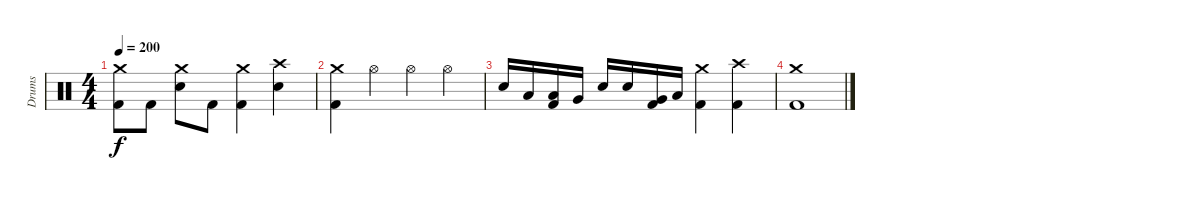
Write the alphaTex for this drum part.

\track ("Drums" "Drums") {instrument percussion}
\staff {score}
\articulation defaults
\ts (4 4)
\tempo 200
\clef neutral
\ks c
("Crash medium (hit)" "Kick (hit) 2").8{dy f} "Kick (hit) 2".8 ("Crash medium (hit)" "Electric Snare (hit)").8 "Kick (hit) 2".8 ("Crash medium (hit)" "Kick (hit) 2").4 ("Crash high (hit)" "Electric Snare (hit)").4 |
("Crash medium (hit)" "Kick (hit) 2").4 "Hi-Hat (open)".4 "Hi-Hat (open)".4 "Hi-Hat (open)".4 |
"Electric Snare (hit)".16 "Low Tom (hit)".16 ("Low Tom (hit)" "Kick (hit) 2").16 "Very Low Tom (hit)".16 "Electric Snare (hit)".16 "Electric Snare (hit)".16 ("Very Low Tom (hit)" "Kick (hit) 2").16 "Low Floor Tom (hit)".16 ("Crash medium (hit)" "Kick (hit) 2").4 ("Crash high (hit)" "Kick (hit) 2").4 |
("Crash medium (hit)" "Kick (hit) 2").1
